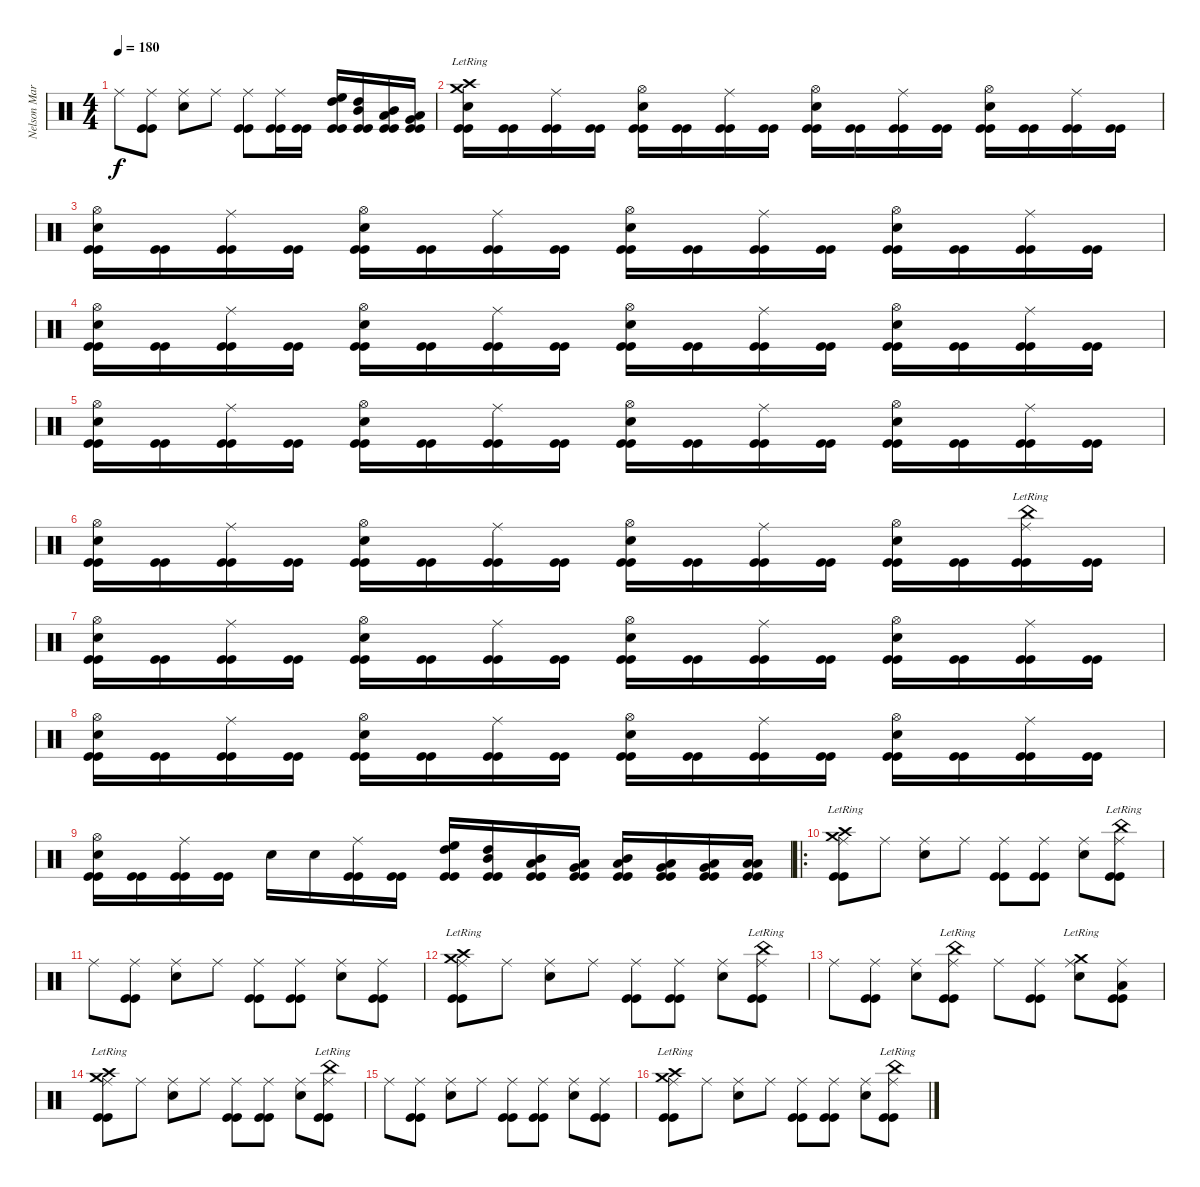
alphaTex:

\track ("Nelson Maria" "Nelson Mar") {instrument percussion}
\staff {score}
\articulation defaults
\ts (4 4)
\tempo 180
\clef neutral
\ks c "Ride (middle)".8{dy f}
("Ride (middle)" "Kick (hit)" "Kick (hit)").8 ("Snare (hit) 2" "Ride (middle)").8 "Ride (middle)".8 ("Ride (middle)" "Kick (hit)" "Kick (hit)").8 ("Ride (middle)" "Kick (hit)" "Kick (hit)").16 ("Kick (hit)" "Kick (hit)").16 ("High Floor Tom (hit)" "High Tom (hit)" "Kick (hit)" "Kick (hit)").16 ("High Tom (hit)" "Mid Tom (hit)" "Kick (hit)" "Kick (hit)").16 ("Mid Tom (hit)" "Low Tom (hit)" "Kick (hit)" "Kick (hit)").16 ("Low Tom (hit)" "Very Low Tom (hit)" "Kick (hit)" "Kick (hit)").16 |
("Crash high (hit)"{lr} "Crash medium (hit)"{lr} "Snare (hit) 2" "Kick (hit)" "Kick (hit)").16 ("Kick (hit)" "Kick (hit)").16 ("Ride (middle)" "Kick (hit)" "Kick (hit)").16 ("Kick (hit)" "Kick (hit)").16 ("Snare (hit) 2" "Hi-Hat (open)" "Kick (hit)" "Kick (hit)").16 ("Kick (hit)" "Kick (hit)").16 ("Ride (middle)" "Kick (hit)" "Kick (hit)").16 ("Kick (hit)" "Kick (hit)").16 ("Snare (hit) 2" "Hi-Hat (open)" "Kick (hit)" "Kick (hit)").16 ("Kick (hit)" "Kick (hit)").16 ("Ride (middle)" "Kick (hit)" "Kick (hit)").16 ("Kick (hit)" "Kick (hit)").16 ("Snare (hit) 2" "Hi-Hat (open)" "Kick (hit)" "Kick (hit)").16 ("Kick (hit)" "Kick (hit)").16 ("Ride (middle)" "Kick (hit)" "Kick (hit)").16 ("Kick (hit)" "Kick (hit)").16 |
("Snare (hit) 2" "Hi-Hat (open)" "Kick (hit)" "Kick (hit)").16 ("Kick (hit)" "Kick (hit)").16 ("Ride (middle)" "Kick (hit)" "Kick (hit)").16 ("Kick (hit)" "Kick (hit)").16 ("Snare (hit) 2" "Hi-Hat (open)" "Kick (hit)" "Kick (hit)").16 ("Kick (hit)" "Kick (hit)").16 ("Ride (middle)" "Kick (hit)" "Kick (hit)").16 ("Kick (hit)" "Kick (hit)").16 ("Snare (hit) 2" "Hi-Hat (open)" "Kick (hit)" "Kick (hit)").16 ("Kick (hit)" "Kick (hit)").16 ("Ride (middle)" "Kick (hit)" "Kick (hit)").16 ("Kick (hit)" "Kick (hit)").16 ("Snare (hit) 2" "Hi-Hat (open)" "Kick (hit)" "Kick (hit)").16 ("Kick (hit)" "Kick (hit)").16 ("Ride (middle)" "Kick (hit)" "Kick (hit)").16 ("Kick (hit)" "Kick (hit)").16 |
("Snare (hit) 2" "Hi-Hat (open)" "Kick (hit)" "Kick (hit)").16 ("Kick (hit)" "Kick (hit)").16 ("Ride (middle)" "Kick (hit)" "Kick (hit)").16 ("Kick (hit)" "Kick (hit)").16 ("Snare (hit) 2" "Hi-Hat (open)" "Kick (hit)" "Kick (hit)").16 ("Kick (hit)" "Kick (hit)").16 ("Ride (middle)" "Kick (hit)" "Kick (hit)").16 ("Kick (hit)" "Kick (hit)").16 ("Snare (hit) 2" "Hi-Hat (open)" "Kick (hit)" "Kick (hit)").16 ("Kick (hit)" "Kick (hit)").16 ("Ride (middle)" "Kick (hit)" "Kick (hit)").16 ("Kick (hit)" "Kick (hit)").16 ("Snare (hit) 2" "Hi-Hat (open)" "Kick (hit)" "Kick (hit)").16 ("Kick (hit)" "Kick (hit)").16 ("Ride (middle)" "Kick (hit)" "Kick (hit)").16 ("Kick (hit)" "Kick (hit)").16 |
("Snare (hit) 2" "Hi-Hat (open)" "Kick (hit)" "Kick (hit)").16 ("Kick (hit)" "Kick (hit)").16 ("Ride (middle)" "Kick (hit)" "Kick (hit)").16 ("Kick (hit)" "Kick (hit)").16 ("Snare (hit) 2" "Hi-Hat (open)" "Kick (hit)" "Kick (hit)").16 ("Kick (hit)" "Kick (hit)").16 ("Ride (middle)" "Kick (hit)" "Kick (hit)").16 ("Kick (hit)" "Kick (hit)").16 ("Snare (hit) 2" "Hi-Hat (open)" "Kick (hit)" "Kick (hit)").16 ("Kick (hit)" "Kick (hit)").16 ("Ride (middle)" "Kick (hit)" "Kick (hit)").16 ("Kick (hit)" "Kick (hit)").16 ("Snare (hit) 2" "Hi-Hat (open)" "Kick (hit)" "Kick (hit)").16 ("Kick (hit)" "Kick (hit)").16 ("Ride (middle)" "Kick (hit)" "Kick (hit)").16 ("Kick (hit)" "Kick (hit)").16 |
("Snare (hit) 2" "Hi-Hat (open)" "Kick (hit)" "Kick (hit)").16 ("Kick (hit)" "Kick (hit)").16 ("Ride (middle)" "Kick (hit)" "Kick (hit)").16 ("Kick (hit)" "Kick (hit)").16 ("Snare (hit) 2" "Hi-Hat (open)" "Kick (hit)" "Kick (hit)").16 ("Kick (hit)" "Kick (hit)").16 ("Ride (middle)" "Kick (hit)" "Kick (hit)").16 ("Kick (hit)" "Kick (hit)").16 ("Snare (hit) 2" "Hi-Hat (open)" "Kick (hit)" "Kick (hit)").16 ("Kick (hit)" "Kick (hit)").16 ("Ride (middle)" "Kick (hit)" "Kick (hit)").16 ("Kick (hit)" "Kick (hit)").16 ("Snare (hit) 2" "Hi-Hat (open)" "Kick (hit)" "Kick (hit)").16 ("Kick (hit)" "Kick (hit)").16 ("China (hit)"{lr} "Ride (middle)" "Kick (hit)" "Kick (hit)").16 ("Kick (hit)" "Kick (hit)").16 |
("Snare (hit) 2" "Hi-Hat (open)" "Kick (hit)" "Kick (hit)").16 ("Kick (hit)" "Kick (hit)").16 ("Ride (middle)" "Kick (hit)" "Kick (hit)").16 ("Kick (hit)" "Kick (hit)").16 ("Snare (hit) 2" "Hi-Hat (open)" "Kick (hit)" "Kick (hit)").16 ("Kick (hit)" "Kick (hit)").16 ("Ride (middle)" "Kick (hit)" "Kick (hit)").16 ("Kick (hit)" "Kick (hit)").16 ("Snare (hit) 2" "Hi-Hat (open)" "Kick (hit)" "Kick (hit)").16 ("Kick (hit)" "Kick (hit)").16 ("Ride (middle)" "Kick (hit)" "Kick (hit)").16 ("Kick (hit)" "Kick (hit)").16 ("Snare (hit) 2" "Hi-Hat (open)" "Kick (hit)" "Kick (hit)").16 ("Kick (hit)" "Kick (hit)").16 ("Ride (middle)" "Kick (hit)" "Kick (hit)").16 ("Kick (hit)" "Kick (hit)").16 |
("Snare (hit) 2" "Hi-Hat (open)" "Kick (hit)" "Kick (hit)").16 ("Kick (hit)" "Kick (hit)").16 ("Ride (middle)" "Kick (hit)" "Kick (hit)").16 ("Kick (hit)" "Kick (hit)").16 ("Snare (hit) 2" "Hi-Hat (open)" "Kick (hit)" "Kick (hit)").16 ("Kick (hit)" "Kick (hit)").16 ("Ride (middle)" "Kick (hit)" "Kick (hit)").16 ("Kick (hit)" "Kick (hit)").16 ("Snare (hit) 2" "Hi-Hat (open)" "Kick (hit)" "Kick (hit)").16 ("Kick (hit)" "Kick (hit)").16 ("Ride (middle)" "Kick (hit)" "Kick (hit)").16 ("Kick (hit)" "Kick (hit)").16 ("Snare (hit) 2" "Hi-Hat (open)" "Kick (hit)" "Kick (hit)").16 ("Kick (hit)" "Kick (hit)").16 ("Ride (middle)" "Kick (hit)" "Kick (hit)").16 ("Kick (hit)" "Kick (hit)").16 |
("Snare (hit) 2" "Hi-Hat (open)" "Kick (hit)" "Kick (hit)").16 ("Kick (hit)" "Kick (hit)").16 ("Ride (middle)" "Kick (hit)" "Kick (hit)").16 ("Kick (hit)" "Kick (hit)").16 "Snare (hit) 2".16 "Snare (hit) 2".16 ("Ride (middle)" "Kick (hit)" "Kick (hit)").16 ("Kick (hit)" "Kick (hit)").16 ("High Floor Tom (hit)" "High Tom (hit)" "Kick (hit)" "Kick (hit)").16 ("High Tom (hit)" "Mid Tom (hit)" "Kick (hit)" "Kick (hit)").16 ("Mid Tom (hit)" "Low Tom (hit)" "Kick (hit)" "Kick (hit)").16 ("Low Tom (hit)" "Very Low Tom (hit)" "Kick (hit)" "Kick (hit)").16 ("Mid Tom (hit)" "Low Tom (hit)" "Kick (hit)" "Kick (hit)").16 ("Low Tom (hit)" "Very Low Tom (hit)" "Kick (hit)" "Kick (hit)").16 ("Very Low Tom (hit)" "Low Floor Tom (hit)" "Kick (hit)" "Kick (hit)").16 ("Low Floor Tom (hit)" "Low Floor Tom (hit)" "Kick (hit)" "Kick (hit)").16 |
\ro
("Crash high (hit)"{lr} "Crash medium (hit)"{lr} "Ride (middle)" "Kick (hit)" "Kick (hit)").8 "Ride (middle)".8 ("Snare (hit) 2" "Ride (middle)").8 "Ride (middle)".8 ("Ride (middle)" "Kick (hit)" "Kick (hit)").8 ("Ride (middle)" "Kick (hit)" "Kick (hit)").8 ("Snare (hit) 2" "Ride (middle)").8 ("China (hit)"{lr} "Ride (middle)" "Kick (hit)" "Kick (hit)").8 |
"Ride (middle)".8 ("Ride (middle)" "Kick (hit)" "Kick (hit)").8 ("Snare (hit) 2" "Ride (middle)").8 "Ride (middle)".8 ("Ride (middle)" "Kick (hit)" "Kick (hit)").8 ("Ride (middle)" "Kick (hit)" "Kick (hit)").8 ("Snare (hit) 2" "Ride (middle)").8 ("Ride (middle)" "Kick (hit)" "Kick (hit)").8 |
("Crash high (hit)"{lr} "Crash medium (hit)"{lr} "Ride (middle)" "Kick (hit)" "Kick (hit)").8 "Ride (middle)".8 ("Snare (hit) 2" "Ride (middle)").8 "Ride (middle)".8 ("Ride (middle)" "Kick (hit)" "Kick (hit)").8 ("Ride (middle)" "Kick (hit)" "Kick (hit)").8 ("Snare (hit) 2" "Ride (middle)").8 ("China (hit)"{lr} "Ride (middle)" "Kick (hit)" "Kick (hit)").8 |
"Ride (middle)".8 ("Ride (middle)" "Kick (hit)" "Kick (hit)").8 ("Snare (hit) 2" "Ride (middle)").8 ("China (hit)"{lr} "Ride (middle)" "Kick (hit)" "Kick (hit)").8 "Ride (middle)".8 ("Ride (middle)" "Kick (hit)" "Kick (hit)").8 ("Crash medium (hit)"{lr} "Snare (hit) 2" "Ride (middle)").8 ("Low Tom (hit)" "Ride (middle)" "Kick (hit)" "Kick (hit)").8 |
("Crash high (hit)"{lr} "Crash medium (hit)"{lr} "Ride (middle)" "Kick (hit)" "Kick (hit)").8 "Ride (middle)".8 ("Snare (hit) 2" "Ride (middle)").8 "Ride (middle)".8 ("Ride (middle)" "Kick (hit)" "Kick (hit)").8 ("Ride (middle)" "Kick (hit)" "Kick (hit)").8 ("Snare (hit) 2" "Ride (middle)").8 ("China (hit)"{lr} "Ride (middle)" "Kick (hit)" "Kick (hit)").8 |
"Ride (middle)".8 ("Ride (middle)" "Kick (hit)" "Kick (hit)").8 ("Snare (hit) 2" "Ride (middle)").8 "Ride (middle)".8 ("Ride (middle)" "Kick (hit)" "Kick (hit)").8 ("Ride (middle)" "Kick (hit)" "Kick (hit)").8 ("Snare (hit) 2" "Ride (middle)").8 ("Ride (middle)" "Kick (hit)" "Kick (hit)").8 |
("Crash high (hit)"{lr} "Crash medium (hit)"{lr} "Ride (middle)" "Kick (hit)" "Kick (hit)").8 "Ride (middle)".8 ("Snare (hit) 2" "Ride (middle)").8 "Ride (middle)".8 ("Ride (middle)" "Kick (hit)" "Kick (hit)").8 ("Ride (middle)" "Kick (hit)" "Kick (hit)").8 ("Snare (hit) 2" "Ride (middle)").8 ("China (hit)"{lr} "Ride (middle)" "Kick (hit)" "Kick (hit)").8
